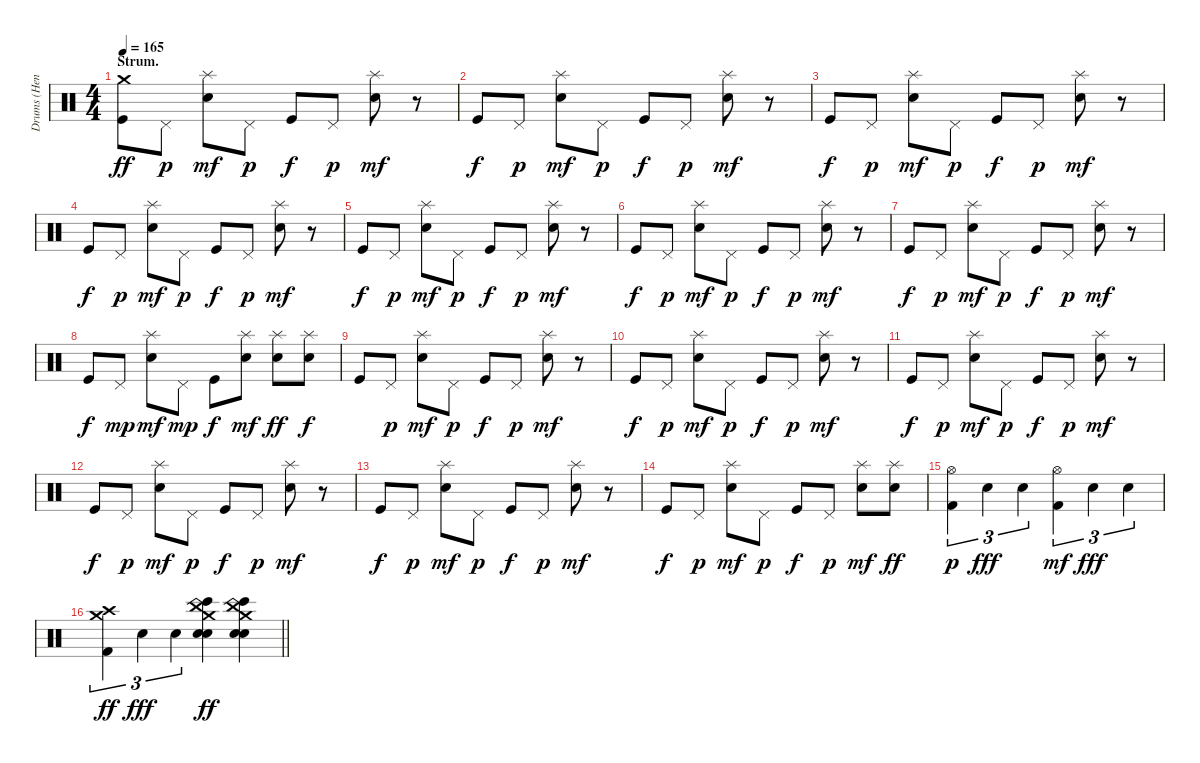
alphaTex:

\track ("Drums (Henry)" "Drums (Hen") {instrument percussion}
\staff {score}
\articulation defaults
\ts (4 4)
\section ("" "Strum.")
\tempo 165
\clef neutral
\ks c
("Kick (hit)" "Crash medium (hit)").8{dy ff} "Pedal Hi-Hat (hit)".8{dy p} ("Snare (hit) 2" "Splash (hit)").8{dy mf} "Pedal Hi-Hat (hit)".8{dy p} "Kick (hit)".8{dy f} "Pedal Hi-Hat (hit)".8{dy p} ("Snare (hit) 2" "Splash (hit)").8{dy mf} r.8 |
"Kick (hit)".8{dy f} "Pedal Hi-Hat (hit)".8{dy p} ("Snare (hit) 2" "Splash (hit)").8{dy mf} "Pedal Hi-Hat (hit)".8{dy p} "Kick (hit)".8{dy f} "Pedal Hi-Hat (hit)".8{dy p} ("Snare (hit) 2" "Splash (hit)").8{dy mf} r.8 |
"Kick (hit)".8{dy f} "Pedal Hi-Hat (hit)".8{dy p} ("Snare (hit) 2" "Splash (hit)").8{dy mf} "Pedal Hi-Hat (hit)".8{dy p} "Kick (hit)".8{dy f} "Pedal Hi-Hat (hit)".8{dy p} ("Snare (hit) 2" "Splash (hit)").8{dy mf} r.8 |
"Kick (hit)".8{dy f} "Pedal Hi-Hat (hit)".8{dy p} ("Snare (hit) 2" "Splash (hit)").8{dy mf} "Pedal Hi-Hat (hit)".8{dy p} "Kick (hit)".8{dy f} "Pedal Hi-Hat (hit)".8{dy p} ("Snare (hit) 2" "Splash (hit)").8{dy mf} r.8 |
"Kick (hit)".8{dy f} "Pedal Hi-Hat (hit)".8{dy p} ("Snare (hit) 2" "Splash (hit)").8{dy mf} "Pedal Hi-Hat (hit)".8{dy p} "Kick (hit)".8{dy f} "Pedal Hi-Hat (hit)".8{dy p} ("Snare (hit) 2" "Splash (hit)").8{dy mf} r.8 |
"Kick (hit)".8{dy f} "Pedal Hi-Hat (hit)".8{dy p} ("Snare (hit) 2" "Splash (hit)").8{dy mf} "Pedal Hi-Hat (hit)".8{dy p} "Kick (hit)".8{dy f} "Pedal Hi-Hat (hit)".8{dy p} ("Snare (hit) 2" "Splash (hit)").8{dy mf} r.8 |
"Kick (hit)".8{dy f} "Pedal Hi-Hat (hit)".8{dy p} ("Snare (hit) 2" "Splash (hit)").8{dy mf} "Pedal Hi-Hat (hit)".8{dy p} "Kick (hit)".8{dy f} "Pedal Hi-Hat (hit)".8{dy p} ("Snare (hit) 2" "Splash (hit)").8{dy mf} r.8 |
"Kick (hit)".8{dy f} "Pedal Hi-Hat (hit)".8{dy mp} ("Snare (hit) 2" "Splash (hit)").8{dy mf} "Pedal Hi-Hat (hit)".8{dy mp} "Kick (hit)".8{dy f} ("Snare (hit) 2" "Splash (hit)").8{dy mf} ("Snare (hit) 2" "Splash (hit)").8{dy ff} ("Snare (hit) 2" "Splash (hit)").8{dy f} |
"Kick (hit)".8 "Pedal Hi-Hat (hit)".8{dy p} ("Snare (hit) 2" "Splash (hit)").8{dy mf} "Pedal Hi-Hat (hit)".8{dy p} "Kick (hit)".8{dy f} "Pedal Hi-Hat (hit)".8{dy p} ("Snare (hit) 2" "Splash (hit)").8{dy mf} r.8 |
"Kick (hit)".8{dy f} "Pedal Hi-Hat (hit)".8{dy p} ("Snare (hit) 2" "Splash (hit)").8{dy mf} "Pedal Hi-Hat (hit)".8{dy p} "Kick (hit)".8{dy f} "Pedal Hi-Hat (hit)".8{dy p} ("Snare (hit) 2" "Splash (hit)").8{dy mf} r.8 |
"Kick (hit)".8{dy f} "Pedal Hi-Hat (hit)".8{dy p} ("Snare (hit) 2" "Splash (hit)").8{dy mf} "Pedal Hi-Hat (hit)".8{dy p} "Kick (hit)".8{dy f} "Pedal Hi-Hat (hit)".8{dy p} ("Snare (hit) 2" "Splash (hit)").8{dy mf} r.8 |
"Kick (hit)".8{dy f} "Pedal Hi-Hat (hit)".8{dy p} ("Snare (hit) 2" "Splash (hit)").8{dy mf} "Pedal Hi-Hat (hit)".8{dy p} "Kick (hit)".8{dy f} "Pedal Hi-Hat (hit)".8{dy p} ("Snare (hit) 2" "Splash (hit)").8{dy mf} r.8 |
"Kick (hit)".8{dy f} "Pedal Hi-Hat (hit)".8{dy p} ("Snare (hit) 2" "Splash (hit)").8{dy mf} "Pedal Hi-Hat (hit)".8{dy p} "Kick (hit)".8{dy f} "Pedal Hi-Hat (hit)".8{dy p} ("Snare (hit) 2" "Splash (hit)").8{dy mf} r.8 |
"Kick (hit)".8{dy f} "Pedal Hi-Hat (hit)".8{dy p} ("Snare (hit) 2" "Splash (hit)").8{dy mf} "Pedal Hi-Hat (hit)".8{dy p} "Kick (hit)".8{dy f} "Pedal Hi-Hat (hit)".8{dy p} ("Snare (hit) 2" "Splash (hit)").8{dy mf} ("Snare (hit) 2" "Splash (hit)").8{dy ff} |
("Kick (hit) 2" "Hi-Hat (open)").4{tu (3 2) dy p volume 14} "Snare (hit) 2".4{tu (3 2) dy fff} "Snare (hit) 2".4{tu (3 2)} ("Kick (hit) 2" "Hi-Hat (open)").4{tu (3 2) dy mf} "Snare (hit) 2".4{tu (3 2) dy fff} "Snare (hit) 2".4{tu (3 2)} |
\barLineRight lightlight
("Kick (hit) 2" "Crash high (hit)" "Crash medium (hit)").4{tu (3 2) dy ff} "Snare (hit) 2".4{tu (3 2) dy fff} "Snare (hit) 2".4{tu (3 2)} ("Snare (hit) 2" "Bongo High (hit)" "Electric Snare (hit)" "Crash medium (hit)" "China (hit)").4{dy ff} ("Snare (hit) 2" "Bongo High (hit)" "Electric Snare (hit)" "Crash medium (hit)" "China (hit)").4
